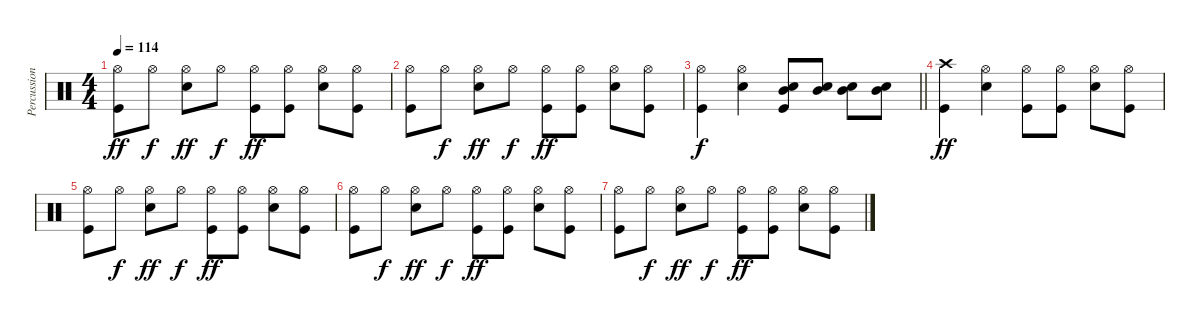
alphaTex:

\track ("Percussion" "Percussion") {instrument percussion}
\staff {score}
\articulation defaults
\ts (4 4)
\tempo 114
\clef neutral
\ks c
("Hi-Hat (open)" "Kick (hit)").8{dy ff} "Hi-Hat (open)".8{dy f} ("Hi-Hat (open)" "Snare (hit) 2").8{dy ff} "Hi-Hat (open)".8{dy f} ("Hi-Hat (open)" "Kick (hit)").8{dy ff} ("Hi-Hat (open)" "Kick (hit)").8 ("Hi-Hat (open)" "Snare (hit) 2").8 ("Hi-Hat (open)" "Kick (hit)").8 |
("Hi-Hat (open)" "Kick (hit)").8 "Hi-Hat (open)".8{dy f} ("Hi-Hat (open)" "Snare (hit) 2").8{dy ff} "Hi-Hat (open)".8{dy f} ("Hi-Hat (open)" "Kick (hit)").8{dy ff} ("Hi-Hat (open)" "Kick (hit)").8 ("Hi-Hat (open)" "Snare (hit) 2").8 ("Hi-Hat (open)" "Kick (hit)").8 |
\barLineRight lightlight
("Hi-Hat (open)" "Kick (hit)").4{dy f} ("Hi-Hat (open)" "Snare (hit) 2").4 ("Snare (hit) 2" "Mid Tom (hit)" "Kick (hit)").8 ("Snare (hit) 2" "Mid Tom (hit)").8 ("Snare (hit) 2" "Mid Tom (hit)").8 ("Snare (hit) 2" "Mid Tom (hit)").8 |
("Crash high (hit)" "Kick (hit)").4{dy ff} ("Hi-Hat (open)" "Snare (hit) 2").4 ("Hi-Hat (open)" "Kick (hit)").8 ("Hi-Hat (open)" "Kick (hit)").8 ("Hi-Hat (open)" "Snare (hit) 2").8 ("Hi-Hat (open)" "Kick (hit)").8 |
("Hi-Hat (open)" "Kick (hit)").8 "Hi-Hat (open)".8{dy f} ("Hi-Hat (open)" "Snare (hit) 2").8{dy ff} "Hi-Hat (open)".8{dy f} ("Hi-Hat (open)" "Kick (hit)").8{dy ff} ("Hi-Hat (open)" "Kick (hit)").8 ("Hi-Hat (open)" "Snare (hit) 2").8 ("Hi-Hat (open)" "Kick (hit)").8 |
("Hi-Hat (open)" "Kick (hit)").8 "Hi-Hat (open)".8{dy f} ("Hi-Hat (open)" "Snare (hit) 2").8{dy ff} "Hi-Hat (open)".8{dy f} ("Hi-Hat (open)" "Kick (hit)").8{dy ff} ("Hi-Hat (open)" "Kick (hit)").8 ("Hi-Hat (open)" "Snare (hit) 2").8 ("Hi-Hat (open)" "Kick (hit)").8 |
("Hi-Hat (open)" "Kick (hit)").8 "Hi-Hat (open)".8{dy f} ("Hi-Hat (open)" "Snare (hit) 2").8{dy ff} "Hi-Hat (open)".8{dy f} ("Hi-Hat (open)" "Kick (hit)").8{dy ff} ("Hi-Hat (open)" "Kick (hit)").8 ("Hi-Hat (open)" "Snare (hit) 2").8 ("Hi-Hat (open)" "Kick (hit)").8
